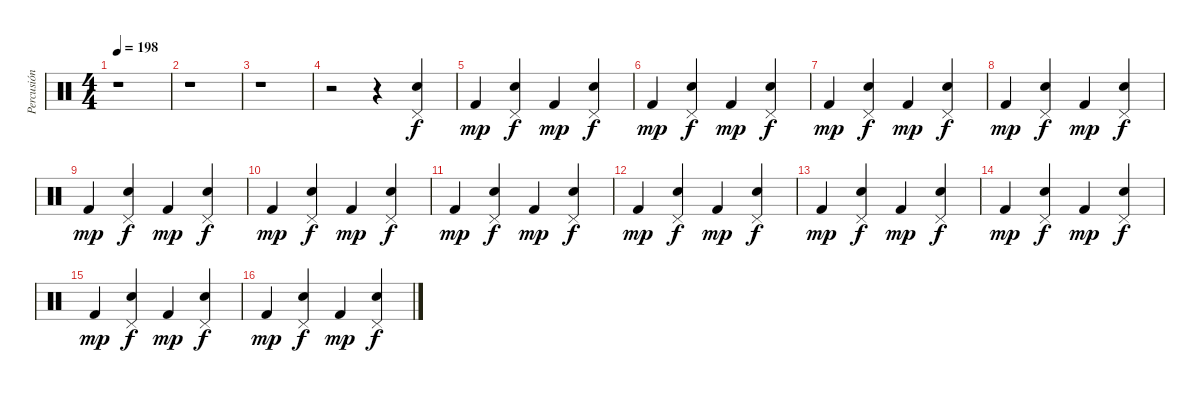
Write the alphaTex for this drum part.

\track ("Percusión" "Percusión") {instrument percussion}
\staff {score}
\articulation defaults
\ts (4 4)
\tempo 198
\clef neutral
\ks c
r.1{dy f} |
r.1 |
r.1 |
r.2 r.4 ("Pedal Hi-Hat (hit)" "Snare (hit) 2").4 |
"Kick (hit) 2".4{dy mp} ("Pedal Hi-Hat (hit)" "Snare (hit) 2").4{dy f} "Kick (hit) 2".4{dy mp} ("Pedal Hi-Hat (hit)" "Snare (hit) 2").4{dy f} |
"Kick (hit) 2".4{dy mp} ("Pedal Hi-Hat (hit)" "Snare (hit) 2").4{dy f} "Kick (hit) 2".4{dy mp} ("Pedal Hi-Hat (hit)" "Snare (hit) 2").4{dy f} |
"Kick (hit) 2".4{dy mp} ("Pedal Hi-Hat (hit)" "Snare (hit) 2").4{dy f} "Kick (hit) 2".4{dy mp} ("Pedal Hi-Hat (hit)" "Snare (hit) 2").4{dy f} |
"Kick (hit) 2".4{dy mp} ("Pedal Hi-Hat (hit)" "Snare (hit) 2").4{dy f} "Kick (hit) 2".4{dy mp} ("Pedal Hi-Hat (hit)" "Snare (hit) 2").4{dy f} |
"Kick (hit) 2".4{dy mp} ("Pedal Hi-Hat (hit)" "Snare (hit) 2").4{dy f} "Kick (hit) 2".4{dy mp} ("Pedal Hi-Hat (hit)" "Snare (hit) 2").4{dy f} |
"Kick (hit) 2".4{dy mp} ("Pedal Hi-Hat (hit)" "Snare (hit) 2").4{dy f} "Kick (hit) 2".4{dy mp} ("Pedal Hi-Hat (hit)" "Snare (hit) 2").4{dy f} |
"Kick (hit) 2".4{dy mp} ("Pedal Hi-Hat (hit)" "Snare (hit) 2").4{dy f} "Kick (hit) 2".4{dy mp} ("Pedal Hi-Hat (hit)" "Snare (hit) 2").4{dy f} |
"Kick (hit) 2".4{dy mp} ("Pedal Hi-Hat (hit)" "Snare (hit) 2").4{dy f} "Kick (hit) 2".4{dy mp} ("Pedal Hi-Hat (hit)" "Snare (hit) 2").4{dy f} |
"Kick (hit) 2".4{dy mp} ("Pedal Hi-Hat (hit)" "Snare (hit) 2").4{dy f} "Kick (hit) 2".4{dy mp} ("Pedal Hi-Hat (hit)" "Snare (hit) 2").4{dy f} |
"Kick (hit) 2".4{dy mp} ("Pedal Hi-Hat (hit)" "Snare (hit) 2").4{dy f} "Kick (hit) 2".4{dy mp} ("Pedal Hi-Hat (hit)" "Snare (hit) 2").4{dy f} |
"Kick (hit) 2".4{dy mp} ("Pedal Hi-Hat (hit)" "Snare (hit) 2").4{dy f} "Kick (hit) 2".4{dy mp} ("Pedal Hi-Hat (hit)" "Snare (hit) 2").4{dy f} |
"Kick (hit) 2".4{dy mp} ("Pedal Hi-Hat (hit)" "Snare (hit) 2").4{dy f} "Kick (hit) 2".4{dy mp} ("Pedal Hi-Hat (hit)" "Snare (hit) 2").4{dy f}
